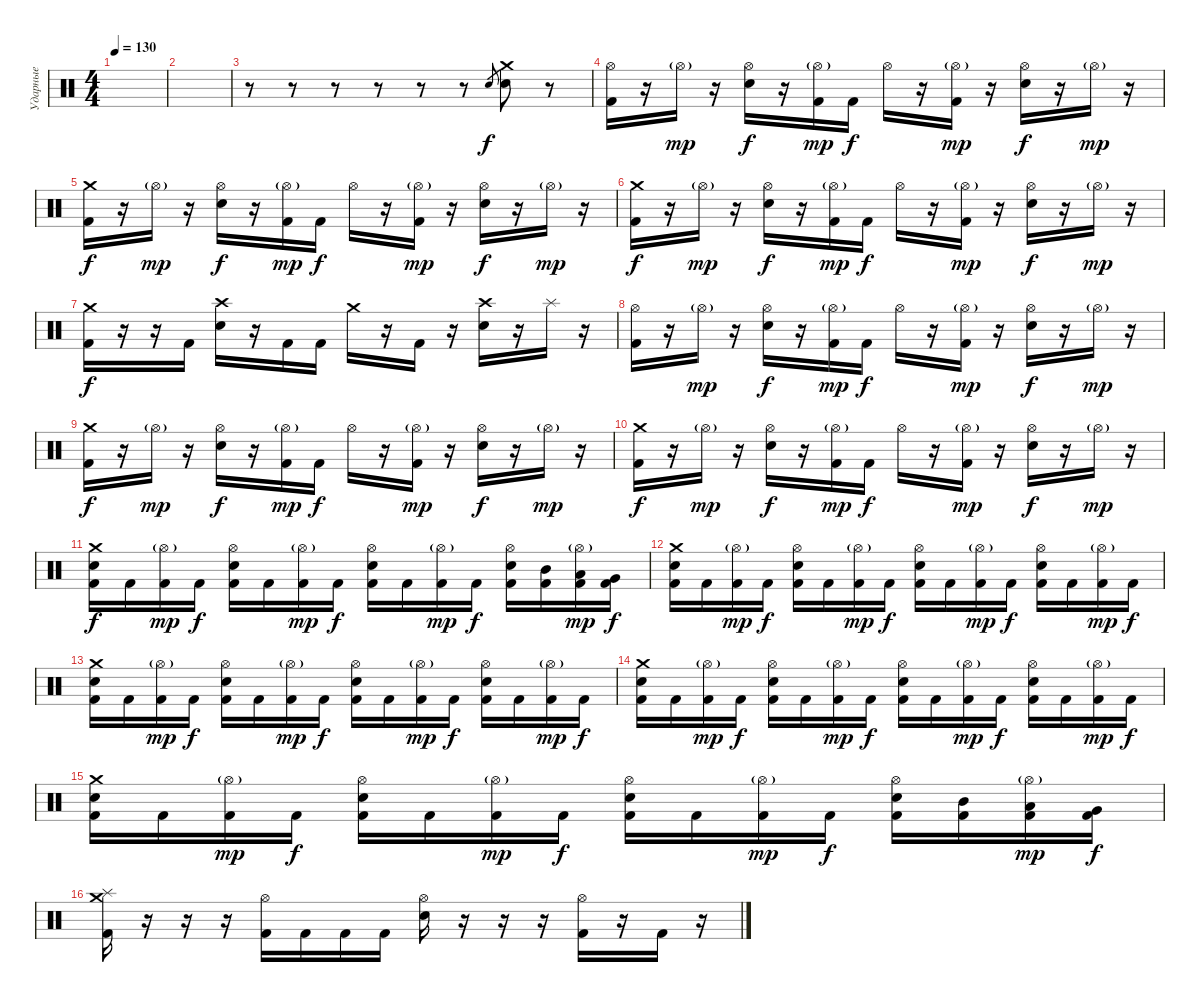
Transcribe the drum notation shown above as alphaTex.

\track ("Ударные" "Ударные") {instrument percussion}
\staff {score}
\articulation defaults
\ts (4 4)
\tempo 130
\clef neutral
\ks c
|
|
r.8 r.8 r.8 r.8 r.8 r.8 "Snare (hit) 2".8{gr} ("Crash medium (hit)" "Snare (hit) 2").8 r.8 |
("Hi-Hat (open)" "Kick (hit) 2").16 r.16 "Hi-Hat (open)"{g}.16{dy mp} r.16 ("Hi-Hat (open)" "Snare (hit) 2").16{dy f} r.16 ("Hi-Hat (open)"{g} "Kick (hit) 2").16{dy mp} "Kick (hit) 2".16{dy f} "Hi-Hat (open)".16 r.16 ("Hi-Hat (open)"{g} "Kick (hit) 2").16{dy mp} r.16 ("Hi-Hat (open)" "Snare (hit) 2").16{dy f} r.16 "Hi-Hat (open)"{g}.16{dy mp} r.16 |
("Crash medium (hit)" "Kick (hit) 2").16{dy f} r.16 "Hi-Hat (open)"{g}.16{dy mp} r.16 ("Hi-Hat (open)" "Snare (hit) 2").16{dy f} r.16 ("Hi-Hat (open)"{g} "Kick (hit) 2").16{dy mp} "Kick (hit) 2".16{dy f} "Hi-Hat (open)".16 r.16 ("Hi-Hat (open)"{g} "Kick (hit) 2").16{dy mp} r.16 ("Hi-Hat (open)" "Snare (hit) 2").16{dy f} r.16 "Hi-Hat (open)"{g}.16{dy mp} r.16 |
("Crash medium (hit)" "Kick (hit) 2").16{dy f} r.16 "Hi-Hat (open)"{g}.16{dy mp} r.16 ("Hi-Hat (open)" "Snare (hit) 2").16{dy f} r.16 ("Hi-Hat (open)"{g} "Kick (hit) 2").16{dy mp} "Kick (hit) 2".16{dy f} "Hi-Hat (open)".16 r.16 ("Hi-Hat (open)"{g} "Kick (hit) 2").16{dy mp} r.16 ("Hi-Hat (open)" "Snare (hit) 2").16{dy f} r.16 "Hi-Hat (open)"{g}.16{dy mp} r.16 |
("Crash medium (hit)" "Kick (hit) 2").16{dy f} r.16 r.16 "Kick (hit) 2".16 ("Crash high (hit)" "Snare (hit) 2").16 r.16 "Kick (hit) 2".16 "Kick (hit) 2".16 "Crash medium (hit)".16 r.16 "Kick (hit) 2".16 r.16 ("Crash high (hit)" "Snare (hit) 2").16 r.16 "Splash (hit)".16 r.16 |
("Hi-Hat (open)" "Kick (hit) 2").16 r.16 "Hi-Hat (open)"{g}.16{dy mp} r.16 ("Hi-Hat (open)" "Snare (hit) 2").16{dy f} r.16 ("Hi-Hat (open)"{g} "Kick (hit) 2").16{dy mp} "Kick (hit) 2".16{dy f} "Hi-Hat (open)".16 r.16 ("Hi-Hat (open)"{g} "Kick (hit) 2").16{dy mp} r.16 ("Hi-Hat (open)" "Snare (hit) 2").16{dy f} r.16 "Hi-Hat (open)"{g}.16{dy mp} r.16 |
("Crash medium (hit)" "Kick (hit) 2").16{dy f} r.16 "Hi-Hat (open)"{g}.16{dy mp} r.16 ("Hi-Hat (open)" "Snare (hit) 2").16{dy f} r.16 ("Hi-Hat (open)"{g} "Kick (hit) 2").16{dy mp} "Kick (hit) 2".16{dy f} "Hi-Hat (open)".16 r.16 ("Hi-Hat (open)"{g} "Kick (hit) 2").16{dy mp} r.16 ("Hi-Hat (open)" "Snare (hit) 2").16{dy f} r.16 "Hi-Hat (open)"{g}.16{dy mp} r.16 |
("Crash medium (hit)" "Kick (hit) 2").16{dy f} r.16 "Hi-Hat (open)"{g}.16{dy mp} r.16 ("Hi-Hat (open)" "Snare (hit) 2").16{dy f} r.16 ("Hi-Hat (open)"{g} "Kick (hit) 2").16{dy mp} "Kick (hit) 2".16{dy f} "Hi-Hat (open)".16 r.16 ("Hi-Hat (open)"{g} "Kick (hit) 2").16{dy mp} r.16 ("Hi-Hat (open)" "Snare (hit) 2").16{dy f} r.16 "Hi-Hat (open)"{g}.16{dy mp} r.16 |
("Crash medium (hit)" "Snare (hit) 2" "Kick (hit) 2").16{dy f} "Kick (hit) 2".16 ("Hi-Hat (open)"{g} "Kick (hit) 2").16{dy mp} "Kick (hit) 2".16{dy f} ("Hi-Hat (open)" "Snare (hit) 2" "Kick (hit) 2").16 "Kick (hit) 2".16 ("Hi-Hat (open)"{g} "Kick (hit) 2").16{dy mp} "Kick (hit) 2".16{dy f} ("Hi-Hat (open)" "Snare (hit) 2" "Kick (hit) 2").16 "Kick (hit) 2".16 ("Hi-Hat (open)"{g} "Kick (hit) 2").16{dy mp} "Kick (hit) 2".16{dy f} ("Hi-Hat (open)" "Snare (hit) 2" "Kick (hit) 2").16 ("Mid Tom (hit)" "Kick (hit) 2").16 ("Hi-Hat (open)"{g} "Low Tom (hit)" "Kick (hit) 2").16{dy mp} ("Very Low Tom (hit)" "Kick (hit) 2").16{dy f} |
("Crash medium (hit)" "Snare (hit) 2" "Kick (hit) 2").16 "Kick (hit) 2".16 ("Hi-Hat (open)"{g} "Kick (hit) 2").16{dy mp} "Kick (hit) 2".16{dy f} ("Hi-Hat (open)" "Snare (hit) 2" "Kick (hit) 2").16 "Kick (hit) 2".16 ("Hi-Hat (open)"{g} "Kick (hit) 2").16{dy mp} "Kick (hit) 2".16{dy f} ("Hi-Hat (open)" "Snare (hit) 2" "Kick (hit) 2").16 "Kick (hit) 2".16 ("Hi-Hat (open)"{g} "Kick (hit) 2").16{dy mp} "Kick (hit) 2".16{dy f} ("Hi-Hat (open)" "Snare (hit) 2" "Kick (hit) 2").16 "Kick (hit) 2".16 ("Hi-Hat (open)"{g} "Kick (hit) 2").16{dy mp} "Kick (hit) 2".16{dy f} |
("Crash medium (hit)" "Snare (hit) 2" "Kick (hit) 2").16 "Kick (hit) 2".16 ("Hi-Hat (open)"{g} "Kick (hit) 2").16{dy mp} "Kick (hit) 2".16{dy f} ("Hi-Hat (open)" "Snare (hit) 2" "Kick (hit) 2").16 "Kick (hit) 2".16 ("Hi-Hat (open)"{g} "Kick (hit) 2").16{dy mp} "Kick (hit) 2".16{dy f} ("Hi-Hat (open)" "Snare (hit) 2" "Kick (hit) 2").16 "Kick (hit) 2".16 ("Hi-Hat (open)"{g} "Kick (hit) 2").16{dy mp} "Kick (hit) 2".16{dy f} ("Hi-Hat (open)" "Snare (hit) 2" "Kick (hit) 2").16 "Kick (hit) 2".16 ("Hi-Hat (open)"{g} "Kick (hit) 2").16{dy mp} "Kick (hit) 2".16{dy f} |
("Crash medium (hit)" "Snare (hit) 2" "Kick (hit) 2").16 "Kick (hit) 2".16 ("Hi-Hat (open)"{g} "Kick (hit) 2").16{dy mp} "Kick (hit) 2".16{dy f} ("Hi-Hat (open)" "Snare (hit) 2" "Kick (hit) 2").16 "Kick (hit) 2".16 ("Hi-Hat (open)"{g} "Kick (hit) 2").16{dy mp} "Kick (hit) 2".16{dy f} ("Hi-Hat (open)" "Snare (hit) 2" "Kick (hit) 2").16 "Kick (hit) 2".16 ("Hi-Hat (open)"{g} "Kick (hit) 2").16{dy mp} "Kick (hit) 2".16{dy f} ("Hi-Hat (open)" "Snare (hit) 2" "Kick (hit) 2").16 "Kick (hit) 2".16 ("Hi-Hat (open)"{g} "Kick (hit) 2").16{dy mp} "Kick (hit) 2".16{dy f} |
("Crash medium (hit)" "Snare (hit) 2" "Kick (hit) 2").16 "Kick (hit) 2".16 ("Hi-Hat (open)"{g} "Kick (hit) 2").16{dy mp} "Kick (hit) 2".16{dy f} ("Hi-Hat (open)" "Snare (hit) 2" "Kick (hit) 2").16 "Kick (hit) 2".16 ("Hi-Hat (open)"{g} "Kick (hit) 2").16{dy mp} "Kick (hit) 2".16{dy f} ("Hi-Hat (open)" "Snare (hit) 2" "Kick (hit) 2").16 "Kick (hit) 2".16 ("Hi-Hat (open)"{g} "Kick (hit) 2").16{dy mp} "Kick (hit) 2".16{dy f} ("Hi-Hat (open)" "Snare (hit) 2" "Kick (hit) 2").16 ("Mid Tom (hit)" "Kick (hit) 2").16 ("Hi-Hat (open)"{g} "Low Tom (hit)" "Kick (hit) 2").16{dy mp} ("Very Low Tom (hit)" "Kick (hit) 2").16{dy f} |
("Splash (hit)" "Crash medium (hit)" "Kick (hit) 2").16 r.16 r.16 r.16 ("Hi-Hat (open)" "Kick (hit) 2").16 "Kick (hit) 2".16 "Kick (hit) 2".16 "Kick (hit) 2".16 ("Hi-Hat (open)" "Snare (hit) 2").16 r.16 r.16 r.16 ("Hi-Hat (open)" "Kick (hit) 2").16 r.16 "Kick (hit) 2".16 r.16
